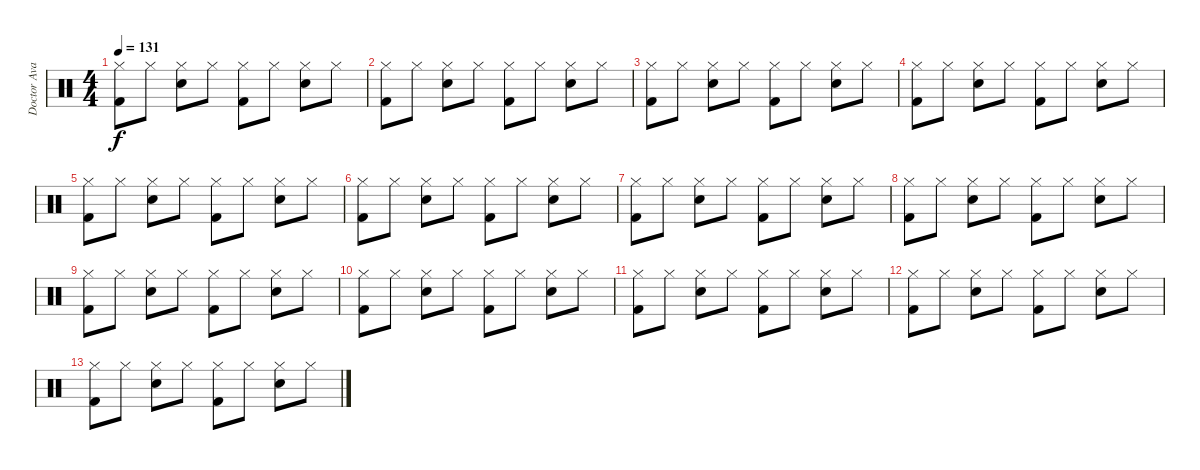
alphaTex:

\track ("Doctor Avalanche" "Doctor Ava") {instrument percussion}
\staff {score}
\articulation defaults
\ts (4 4)
\tempo 131
\clef neutral
\ks c
("Kick (hit) 2" "Hi-Hat (closed)").8{dy f} "Hi-Hat (closed)".8 ("Snare (hit) 2" "Hi-Hat (closed)").8 "Hi-Hat (closed)".8 ("Kick (hit) 2" "Hi-Hat (closed)").8 "Hi-Hat (closed)".8 ("Snare (hit) 2" "Hi-Hat (closed)").8 "Hi-Hat (closed)".8 |
("Kick (hit) 2" "Hi-Hat (closed)").8 "Hi-Hat (closed)".8 ("Snare (hit) 2" "Hi-Hat (closed)").8 "Hi-Hat (closed)".8 ("Kick (hit) 2" "Hi-Hat (closed)").8 "Hi-Hat (closed)".8 ("Snare (hit) 2" "Hi-Hat (closed)").8 "Hi-Hat (closed)".8 |
("Kick (hit) 2" "Hi-Hat (closed)").8 "Hi-Hat (closed)".8 ("Snare (hit) 2" "Hi-Hat (closed)").8 "Hi-Hat (closed)".8 ("Kick (hit) 2" "Hi-Hat (closed)").8 "Hi-Hat (closed)".8 ("Snare (hit) 2" "Hi-Hat (closed)").8 "Hi-Hat (closed)".8 |
("Kick (hit) 2" "Hi-Hat (closed)").8 "Hi-Hat (closed)".8 ("Snare (hit) 2" "Hi-Hat (closed)").8 "Hi-Hat (closed)".8 ("Kick (hit) 2" "Hi-Hat (closed)").8 "Hi-Hat (closed)".8 ("Snare (hit) 2" "Hi-Hat (closed)").8 "Hi-Hat (closed)".8 |
("Kick (hit) 2" "Hi-Hat (closed)").8 "Hi-Hat (closed)".8 ("Snare (hit) 2" "Hi-Hat (closed)").8 "Hi-Hat (closed)".8 ("Kick (hit) 2" "Hi-Hat (closed)").8 "Hi-Hat (closed)".8 ("Snare (hit) 2" "Hi-Hat (closed)").8 "Hi-Hat (closed)".8 |
("Kick (hit) 2" "Hi-Hat (closed)").8 "Hi-Hat (closed)".8 ("Snare (hit) 2" "Hi-Hat (closed)").8 "Hi-Hat (closed)".8 ("Kick (hit) 2" "Hi-Hat (closed)").8 "Hi-Hat (closed)".8 ("Snare (hit) 2" "Hi-Hat (closed)").8 "Hi-Hat (closed)".8 |
("Kick (hit) 2" "Hi-Hat (closed)").8 "Hi-Hat (closed)".8 ("Snare (hit) 2" "Hi-Hat (closed)").8 "Hi-Hat (closed)".8 ("Kick (hit) 2" "Hi-Hat (closed)").8 "Hi-Hat (closed)".8 ("Snare (hit) 2" "Hi-Hat (closed)").8 "Hi-Hat (closed)".8 |
("Kick (hit) 2" "Hi-Hat (closed)").8 "Hi-Hat (closed)".8 ("Snare (hit) 2" "Hi-Hat (closed)").8 "Hi-Hat (closed)".8 ("Kick (hit) 2" "Hi-Hat (closed)").8 "Hi-Hat (closed)".8 ("Snare (hit) 2" "Hi-Hat (closed)").8 "Hi-Hat (closed)".8 |
("Kick (hit) 2" "Hi-Hat (closed)").8 "Hi-Hat (closed)".8 ("Snare (hit) 2" "Hi-Hat (closed)").8 "Hi-Hat (closed)".8 ("Kick (hit) 2" "Hi-Hat (closed)").8 "Hi-Hat (closed)".8 ("Snare (hit) 2" "Hi-Hat (closed)").8 "Hi-Hat (closed)".8 |
("Kick (hit) 2" "Hi-Hat (closed)").8 "Hi-Hat (closed)".8 ("Snare (hit) 2" "Hi-Hat (closed)").8 "Hi-Hat (closed)".8 ("Kick (hit) 2" "Hi-Hat (closed)").8 "Hi-Hat (closed)".8 ("Snare (hit) 2" "Hi-Hat (closed)").8 "Hi-Hat (closed)".8 |
("Kick (hit) 2" "Hi-Hat (closed)").8 "Hi-Hat (closed)".8 ("Snare (hit) 2" "Hi-Hat (closed)").8 "Hi-Hat (closed)".8 ("Kick (hit) 2" "Hi-Hat (closed)").8 "Hi-Hat (closed)".8 ("Snare (hit) 2" "Hi-Hat (closed)").8 "Hi-Hat (closed)".8 |
("Kick (hit) 2" "Hi-Hat (closed)").8 "Hi-Hat (closed)".8 ("Snare (hit) 2" "Hi-Hat (closed)").8 "Hi-Hat (closed)".8 ("Kick (hit) 2" "Hi-Hat (closed)").8 "Hi-Hat (closed)".8 ("Snare (hit) 2" "Hi-Hat (closed)").8 "Hi-Hat (closed)".8 |
("Kick (hit) 2" "Hi-Hat (closed)").8 "Hi-Hat (closed)".8 ("Snare (hit) 2" "Hi-Hat (closed)").8 "Hi-Hat (closed)".8 ("Kick (hit) 2" "Hi-Hat (closed)").8 "Hi-Hat (closed)".8 ("Snare (hit) 2" "Hi-Hat (closed)").8 "Hi-Hat (closed)".8
